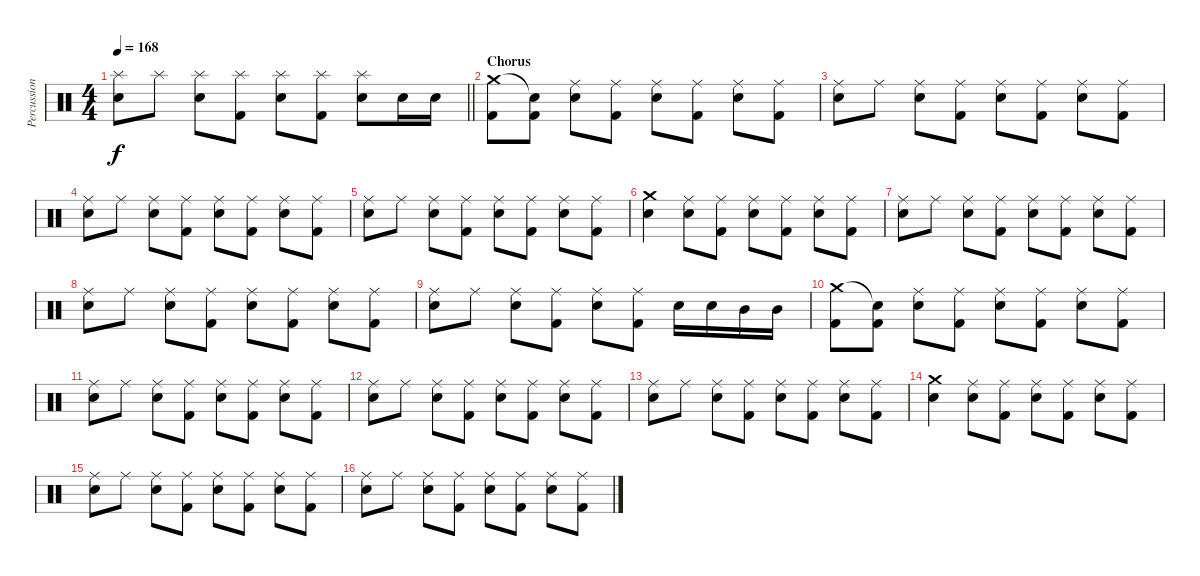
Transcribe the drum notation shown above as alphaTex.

\track ("Percussion" "Percussion") {instrument percussion}
\staff {score}
\articulation defaults
\ts (4 4)
\tempo 168
\clef neutral
\barLineRight lightlight
\ks c
("Splash (hit)" "Snare (hit) 2").8{dy f} "Splash (hit)".8 ("Splash (hit)" "Snare (hit) 2").8 ("Splash (hit)" "Kick (hit) 2").8 ("Splash (hit)" "Snare (hit) 2").8 ("Splash (hit)" "Kick (hit) 2").8 ("Splash (hit)" "Snare (hit) 2").8 "Snare (hit) 2".16 "Snare (hit) 2".16 |
\section ("" "Chorus")
("Crash medium (hit)" "Kick (hit) 2").8 ("Snare (hit)"{t} "Kick (hit) 2").8 ("Ride (middle)" "Snare (hit) 2").8 ("Ride (middle)" "Kick (hit) 2").8 ("Ride (middle)" "Snare (hit) 2").8 ("Ride (middle)" "Kick (hit) 2").8 ("Ride (middle)" "Snare (hit) 2").8 ("Ride (middle)" "Kick (hit) 2").8 |
("Ride (middle)" "Snare (hit) 2").8 "Ride (middle)".8 ("Ride (middle)" "Snare (hit) 2").8 ("Ride (middle)" "Kick (hit) 2").8 ("Ride (middle)" "Snare (hit) 2").8 ("Ride (middle)" "Kick (hit) 2").8 ("Ride (middle)" "Snare (hit) 2").8 ("Ride (middle)" "Kick (hit) 2").8 |
("Ride (middle)" "Snare (hit) 2").8 "Ride (middle)".8 ("Ride (middle)" "Snare (hit) 2").8 ("Ride (middle)" "Kick (hit) 2").8 ("Ride (middle)" "Snare (hit) 2").8 ("Ride (middle)" "Kick (hit) 2").8 ("Ride (middle)" "Snare (hit) 2").8 ("Ride (middle)" "Kick (hit) 2").8 |
("Ride (middle)" "Snare (hit) 2").8 "Ride (middle)".8 ("Ride (middle)" "Snare (hit) 2").8 ("Ride (middle)" "Kick (hit) 2").8 ("Ride (middle)" "Snare (hit) 2").8 ("Ride (middle)" "Kick (hit) 2").8 ("Ride (middle)" "Snare (hit) 2").8 ("Ride (middle)" "Kick (hit) 2").8 |
("Crash medium (hit)" "Snare (hit) 2").4 ("Ride (middle)" "Snare (hit) 2").8 ("Ride (middle)" "Kick (hit) 2").8 ("Ride (middle)" "Snare (hit) 2").8 ("Ride (middle)" "Kick (hit) 2").8 ("Ride (middle)" "Snare (hit) 2").8 ("Ride (middle)" "Kick (hit) 2").8 |
("Ride (middle)" "Snare (hit) 2").8 "Ride (middle)".8 ("Ride (middle)" "Snare (hit) 2").8 ("Ride (middle)" "Kick (hit) 2").8 ("Ride (middle)" "Snare (hit) 2").8 ("Ride (middle)" "Kick (hit) 2").8 ("Ride (middle)" "Snare (hit) 2").8 ("Ride (middle)" "Kick (hit) 2").8 |
("Ride (middle)" "Snare (hit) 2").8 "Ride (middle)".8 ("Ride (middle)" "Snare (hit) 2").8 ("Ride (middle)" "Kick (hit) 2").8 ("Ride (middle)" "Snare (hit) 2").8 ("Ride (middle)" "Kick (hit) 2").8 ("Ride (middle)" "Snare (hit) 2").8 ("Ride (middle)" "Kick (hit) 2").8 |
("Ride (middle)" "Snare (hit) 2").8 "Ride (middle)".8 ("Ride (middle)" "Snare (hit) 2").8 ("Ride (middle)" "Kick (hit) 2").8 ("Ride (middle)" "Snare (hit) 2").8 ("Ride (middle)" "Kick (hit) 2").8 "Snare (hit) 2".16 "Snare (hit) 2".16 "Mid Tom (hit)".16 "Mid Tom (hit)".16 |
("Crash medium (hit)" "Kick (hit) 2").8 ("Snare (hit)"{t} "Kick (hit) 2").8 ("Ride (middle)" "Snare (hit) 2").8 ("Ride (middle)" "Kick (hit) 2").8 ("Ride (middle)" "Snare (hit) 2").8 ("Ride (middle)" "Kick (hit) 2").8 ("Ride (middle)" "Snare (hit) 2").8 ("Ride (middle)" "Kick (hit) 2").8 |
("Ride (middle)" "Snare (hit) 2").8 "Ride (middle)".8 ("Ride (middle)" "Snare (hit) 2").8 ("Ride (middle)" "Kick (hit) 2").8 ("Ride (middle)" "Snare (hit) 2").8 ("Ride (middle)" "Kick (hit) 2").8 ("Ride (middle)" "Snare (hit) 2").8 ("Ride (middle)" "Kick (hit) 2").8 |
("Ride (middle)" "Snare (hit) 2").8 "Ride (middle)".8 ("Ride (middle)" "Snare (hit) 2").8 ("Ride (middle)" "Kick (hit) 2").8 ("Ride (middle)" "Snare (hit) 2").8 ("Ride (middle)" "Kick (hit) 2").8 ("Ride (middle)" "Snare (hit) 2").8 ("Ride (middle)" "Kick (hit) 2").8 |
("Ride (middle)" "Snare (hit) 2").8 "Ride (middle)".8 ("Ride (middle)" "Snare (hit) 2").8 ("Ride (middle)" "Kick (hit) 2").8 ("Ride (middle)" "Snare (hit) 2").8 ("Ride (middle)" "Kick (hit) 2").8 ("Ride (middle)" "Snare (hit) 2").8 ("Ride (middle)" "Kick (hit) 2").8 |
("Crash medium (hit)" "Snare (hit) 2").4 ("Ride (middle)" "Snare (hit) 2").8 ("Ride (middle)" "Kick (hit) 2").8 ("Ride (middle)" "Snare (hit) 2").8 ("Ride (middle)" "Kick (hit) 2").8 ("Ride (middle)" "Snare (hit) 2").8 ("Ride (middle)" "Kick (hit) 2").8 |
("Ride (middle)" "Snare (hit) 2").8 "Ride (middle)".8 ("Ride (middle)" "Snare (hit) 2").8 ("Ride (middle)" "Kick (hit) 2").8 ("Ride (middle)" "Snare (hit) 2").8 ("Ride (middle)" "Kick (hit) 2").8 ("Ride (middle)" "Snare (hit) 2").8 ("Ride (middle)" "Kick (hit) 2").8 |
("Ride (middle)" "Snare (hit) 2").8 "Ride (middle)".8 ("Ride (middle)" "Snare (hit) 2").8 ("Ride (middle)" "Kick (hit) 2").8 ("Ride (middle)" "Snare (hit) 2").8 ("Ride (middle)" "Kick (hit) 2").8 ("Ride (middle)" "Snare (hit) 2").8 ("Ride (middle)" "Kick (hit) 2").8
